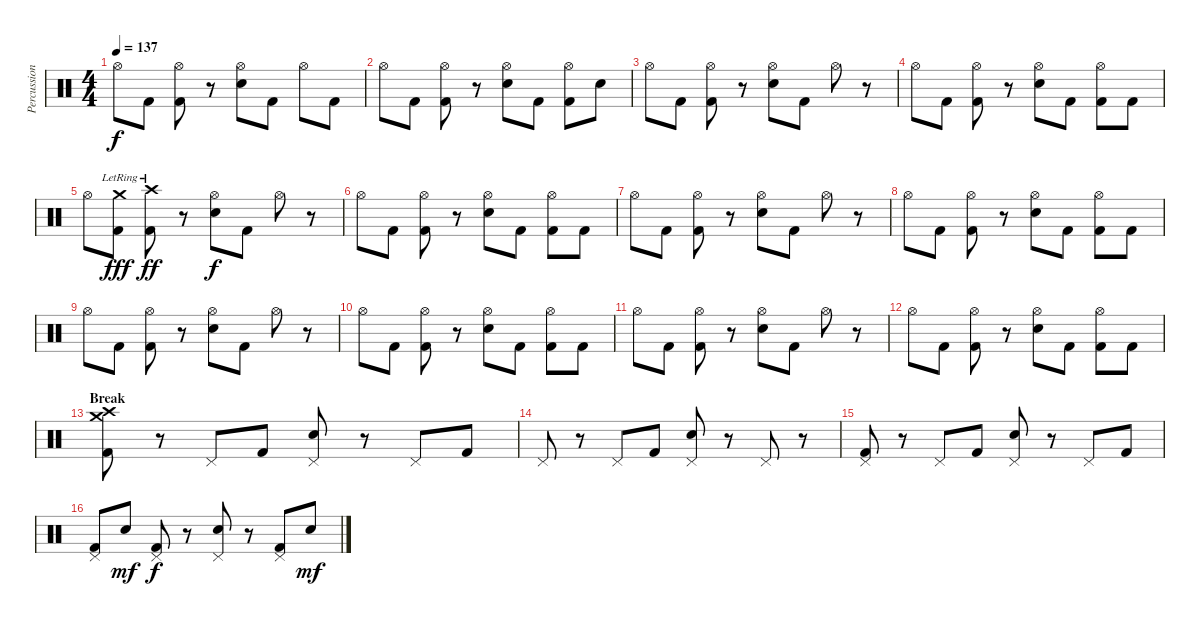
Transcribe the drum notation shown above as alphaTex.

\track ("Percussions" "Percussion") {instrument percussion}
\staff {score}
\articulation defaults
\ts (4 4)
\tempo 137
\clef neutral
\ks c "Hi-Hat (open)".8{dy f} "Kick (hit) 2".8
("Hi-Hat (open)" "Kick (hit) 2").8 r.8 ("Hi-Hat (open)" "Electric Snare (hit)").8 "Kick (hit) 2".8 "Hi-Hat (open)".8 "Kick (hit) 2".8 |
"Hi-Hat (open)".8 "Kick (hit) 2".8 ("Hi-Hat (open)" "Kick (hit) 2").8 r.8 ("Hi-Hat (open)" "Electric Snare (hit)").8 "Kick (hit) 2".8 ("Hi-Hat (open)" "Kick (hit) 2").8 "Electric Snare (hit)".8 |
"Hi-Hat (open)".8 "Kick (hit) 2".8 ("Hi-Hat (open)" "Kick (hit) 2").8 r.8 ("Hi-Hat (open)" "Electric Snare (hit)").8 "Kick (hit) 2".8 "Hi-Hat (open)".8 r.8 |
"Hi-Hat (open)".8 "Kick (hit) 2".8 ("Hi-Hat (open)" "Kick (hit) 2").8 r.8 ("Hi-Hat (open)" "Electric Snare (hit)").8 "Kick (hit) 2".8 ("Hi-Hat (open)" "Kick (hit) 2").8 "Kick (hit) 2".8 |
"Hi-Hat (open)".8 ("Crash medium (hit)"{lr} "Kick (hit) 2").8{dy fff} ("Crash high (hit)"{lr} "Kick (hit) 2").8{dy ff} r.8 ("Hi-Hat (open)" "Electric Snare (hit)").8{dy f} "Kick (hit) 2".8 "Hi-Hat (open)".8 r.8 |
"Hi-Hat (open)".8 "Kick (hit) 2".8 ("Hi-Hat (open)" "Kick (hit) 2").8 r.8 ("Hi-Hat (open)" "Electric Snare (hit)").8 "Kick (hit) 2".8 ("Hi-Hat (open)" "Kick (hit) 2").8 "Kick (hit) 2".8 |
"Hi-Hat (open)".8 "Kick (hit) 2".8 ("Hi-Hat (open)" "Kick (hit) 2").8 r.8 ("Hi-Hat (open)" "Electric Snare (hit)").8 "Kick (hit) 2".8 "Hi-Hat (open)".8 r.8 |
"Hi-Hat (open)".8 "Kick (hit) 2".8 ("Hi-Hat (open)" "Kick (hit) 2").8 r.8 ("Hi-Hat (open)" "Electric Snare (hit)").8 "Kick (hit) 2".8 ("Hi-Hat (open)" "Kick (hit) 2").8 "Kick (hit) 2".8 |
"Hi-Hat (open)".8 "Kick (hit) 2".8 ("Hi-Hat (open)" "Kick (hit) 2").8 r.8 ("Hi-Hat (open)" "Electric Snare (hit)").8 "Kick (hit) 2".8 "Hi-Hat (open)".8 r.8 |
"Hi-Hat (open)".8 "Kick (hit) 2".8 ("Hi-Hat (open)" "Kick (hit) 2").8 r.8 ("Hi-Hat (open)" "Electric Snare (hit)").8 "Kick (hit) 2".8 ("Hi-Hat (open)" "Kick (hit) 2").8 "Kick (hit) 2".8 |
"Hi-Hat (open)".8 "Kick (hit) 2".8 ("Hi-Hat (open)" "Kick (hit) 2").8 r.8 ("Hi-Hat (open)" "Electric Snare (hit)").8 "Kick (hit) 2".8 "Hi-Hat (open)".8 r.8 |
"Hi-Hat (open)".8 "Kick (hit) 2".8 ("Hi-Hat (open)" "Kick (hit) 2").8 r.8 ("Hi-Hat (open)" "Electric Snare (hit)").8 "Kick (hit) 2".8 ("Hi-Hat (open)" "Kick (hit) 2").8 "Kick (hit) 2".8 |
\section ("" "Break")
("Crash high (hit)" "Crash medium (hit)" "Kick (hit) 2").8 r.8 "Pedal Hi-Hat (hit)".8 "Kick (hit) 2".8 ("Pedal Hi-Hat (hit)" "Electric Snare (hit)").8 r.8 "Pedal Hi-Hat (hit)".8 "Kick (hit) 2".8 |
"Pedal Hi-Hat (hit)".8 r.8 "Pedal Hi-Hat (hit)".8 "Kick (hit) 2".8 ("Pedal Hi-Hat (hit)" "Electric Snare (hit)").8 r.8 "Pedal Hi-Hat (hit)".8 r.8 |
("Pedal Hi-Hat (hit)" "Kick (hit) 2").8 r.8 "Pedal Hi-Hat (hit)".8 "Kick (hit) 2".8 ("Pedal Hi-Hat (hit)" "Electric Snare (hit)").8 r.8 "Pedal Hi-Hat (hit)".8 "Kick (hit) 2".8 |
("Pedal Hi-Hat (hit)" "Kick (hit) 2").8 "Electric Snare (hit)".8{dy mf} ("Pedal Hi-Hat (hit)" "Kick (hit) 2").8{dy f} r.8 ("Pedal Hi-Hat (hit)" "Electric Snare (hit)").8 r.8 ("Pedal Hi-Hat (hit)" "Kick (hit) 2").8 "Electric Snare (hit)".8{dy mf}
